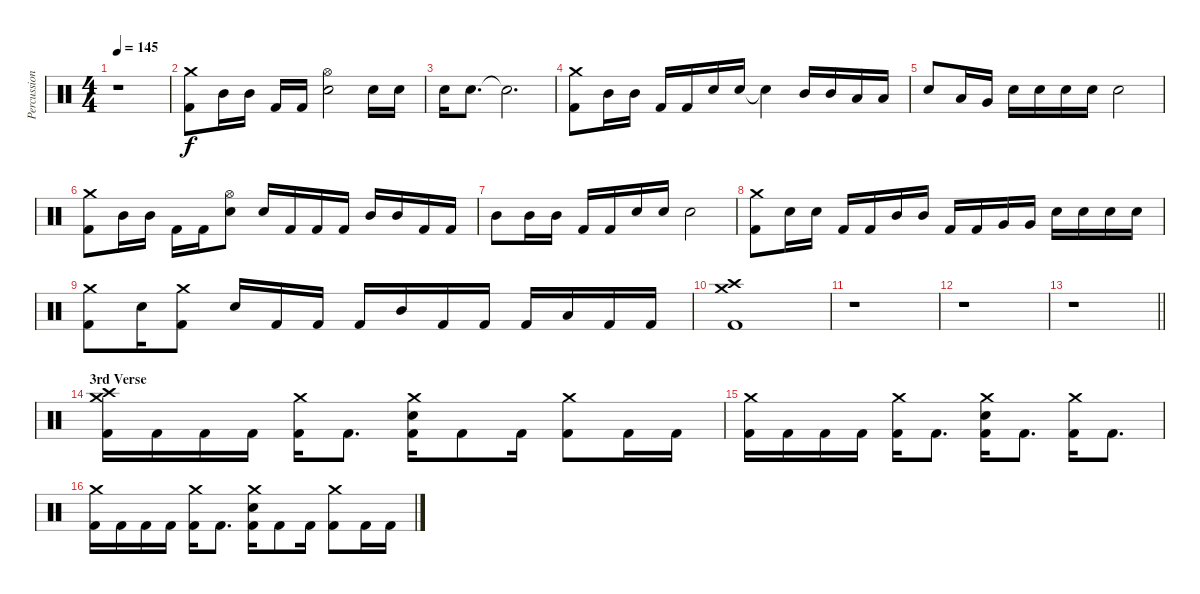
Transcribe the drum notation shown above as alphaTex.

\track ("Percussion" "Percussion") {instrument percussion}
\staff {score}
\articulation defaults
\ts (4 4)
\tempo 145
\clef neutral
\ks c
r.1{dy f} |
("Crash medium (hit)" "Kick (hit) 2").8 "Mid Tom (hit)".16 "Mid Tom (hit)".16 "Kick (hit) 2".16 "Kick (hit) 2".16 ("Hi-Hat (open)" "Electric Snare (hit)").2 "Electric Snare (hit)".16 "Electric Snare (hit)".16 |
"Electric Snare (hit)".16 "Electric Snare (hit)".8{d} "Snare (hit)"{t}.2{d} |
("Crash medium (hit)" "Kick (hit) 2").8 "Mid Tom (hit)".16 "Mid Tom (hit)".16 "Kick (hit) 2".16 "Kick (hit) 2".16 "Electric Snare (hit)".16 "Electric Snare (hit)".16 "Snare (hit)"{t}.4 "Mid Tom (hit)".16 "Mid Tom (hit)".16 "Low Tom (hit)".16 "Low Tom (hit)".16 |
"Electric Snare (hit)".8 "Low Tom (hit)".16 "Very Low Tom (hit)".16 "Electric Snare (hit)".16 "Electric Snare (hit)".16 "Electric Snare (hit)".16 "Electric Snare (hit)".16 "Electric Snare (hit)".2 |
("Crash medium (hit)" "Kick (hit) 2").8 "Mid Tom (hit)".16 "Mid Tom (hit)".16 "Kick (hit) 2".16 "Kick (hit) 2".16 ("Hi-Hat (open)" "Electric Snare (hit)").8 "Electric Snare (hit)".16 "Kick (hit) 2".16 "Kick (hit) 2".16 "Kick (hit) 2".16 "Mid Tom (hit)".16 "Mid Tom (hit)".16 "Kick (hit) 2".16 "Kick (hit) 2".16 |
"Mid Tom (hit)".8 "Mid Tom (hit)".16 "Mid Tom (hit)".16 "Kick (hit) 2".16 "Kick (hit) 2".16 "Electric Snare (hit)".16 "Electric Snare (hit)".16 "Electric Snare (hit)".2 |
("Crash medium (hit)" "Kick (hit) 2").8 "Electric Snare (hit)".16 "Electric Snare (hit)".16 "Kick (hit) 2".16 "Kick (hit) 2".16 "Mid Tom (hit)".16 "Mid Tom (hit)".16 "Kick (hit) 2".16 "Kick (hit) 2".16 "Very Low Tom (hit)".16 "Very Low Tom (hit)".16 "Electric Snare (hit)".16 "Electric Snare (hit)".16 "Electric Snare (hit)".16 "Electric Snare (hit)".16 |
("Crash medium (hit)" "Kick (hit) 2").8 "Electric Snare (hit)".16 ("Crash medium (hit)" "Kick (hit) 2").8 "Electric Snare (hit)".16 "Kick (hit) 2".16 "Kick (hit) 2".16 "Kick (hit) 2".16 "Mid Tom (hit)".16 "Kick (hit) 2".16 "Kick (hit) 2".16 "Kick (hit) 2".16 "Low Tom (hit)".16 "Kick (hit) 2".16 "Kick (hit) 2".16 |
("Crash medium (hit)" "Crash high (hit)" "Kick (hit) 2").1 |
r.1 |
r.1 |
\barLineRight lightlight
r.1 |
\section ("" "3rd Verse")
("Crash high (hit)" "Crash medium (hit)" "Kick (hit) 2").16 "Kick (hit) 2".16 "Kick (hit) 2".16 "Kick (hit) 2".16 ("Crash medium (hit)" "Kick (hit) 2").16 "Kick (hit) 2".8{d} ("Crash medium (hit)" "Electric Snare (hit)" "Kick (hit) 2").16 "Kick (hit) 2".8 "Kick (hit) 2".16 ("Crash medium (hit)" "Kick (hit) 2").8 "Kick (hit) 2".16 "Kick (hit) 2".16 |
("Crash medium (hit)" "Kick (hit) 2").16 "Kick (hit) 2".16 "Kick (hit) 2".16 "Kick (hit) 2".16 ("Crash medium (hit)" "Kick (hit) 2").16 "Kick (hit) 2".8{d} ("Crash medium (hit)" "Electric Snare (hit)" "Kick (hit) 2").16 "Kick (hit) 2".8{d} ("Crash medium (hit)" "Kick (hit) 2").16 "Kick (hit) 2".8{d} |
("Crash medium (hit)" "Kick (hit) 2").16 "Kick (hit) 2".16 "Kick (hit) 2".16 "Kick (hit) 2".16 ("Crash medium (hit)" "Kick (hit) 2").16 "Kick (hit) 2".8{d} ("Crash medium (hit)" "Electric Snare (hit)" "Kick (hit) 2").16 "Kick (hit) 2".8 "Kick (hit) 2".16 ("Crash medium (hit)" "Kick (hit) 2").8 "Kick (hit) 2".16 "Kick (hit) 2".16
